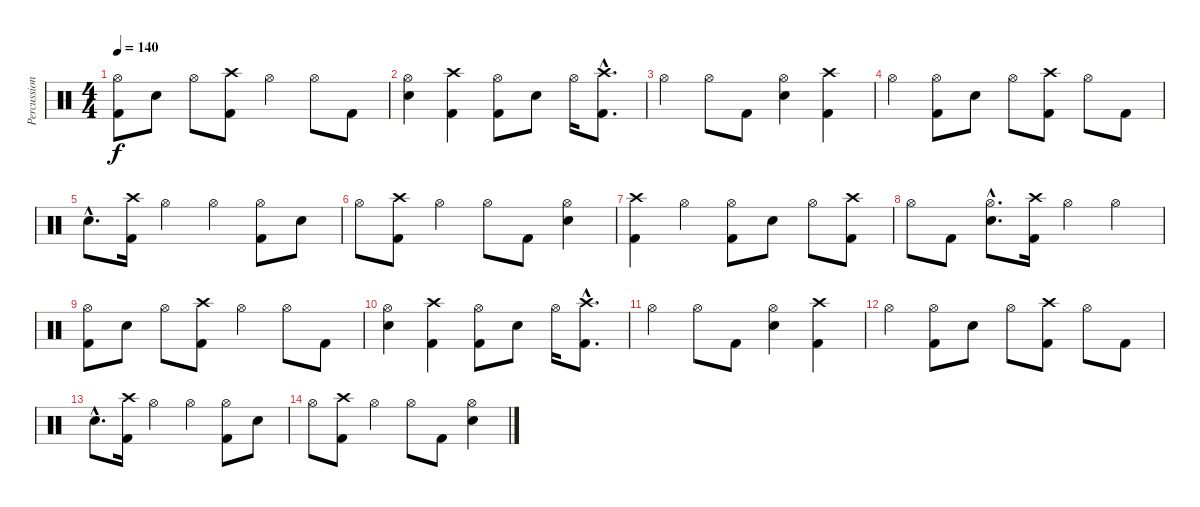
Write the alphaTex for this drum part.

\track ("Percussion" "Percussion") {instrument percussion}
\staff {score}
\articulation defaults
\ts (4 4)
\tempo 140
\clef neutral
\ks c
("Hi-Hat (open)" "Kick (hit) 2").8{dy f} "Electric Snare (hit)".8 "Hi-Hat (open)".8 ("Crash high (hit)" "Kick (hit) 2").8 "Hi-Hat (open)".4 "Hi-Hat (open)".8 "Kick (hit) 2".8 |
("Hi-Hat (open)" "Electric Snare (hit)").4 ("Crash high (hit)" "Kick (hit) 2").4 ("Hi-Hat (open)" "Kick (hit) 2").8 "Electric Snare (hit)".8 "Hi-Hat (open)".16 ("Crash high (hit)"{hac} "Kick (hit) 2"{hac}).8{d} |
"Hi-Hat (open)".4 "Hi-Hat (open)".8 "Kick (hit) 2".8 ("Hi-Hat (open)" "Electric Snare (hit)").4 ("Crash high (hit)" "Kick (hit) 2").4 |
"Hi-Hat (open)".4 ("Hi-Hat (open)" "Kick (hit) 2").8 "Electric Snare (hit)".8 "Hi-Hat (open)".8 ("Crash high (hit)" "Kick (hit) 2").8 "Hi-Hat (open)".8 "Kick (hit) 2".8 |
"Electric Snare (hit)"{hac}.8{d} ("Crash high (hit)" "Kick (hit) 2").16 "Hi-Hat (open)".4 "Hi-Hat (open)".4 ("Hi-Hat (open)" "Kick (hit) 2").8 "Electric Snare (hit)".8 |
"Hi-Hat (open)".8 ("Crash high (hit)" "Kick (hit) 2").8 "Hi-Hat (open)".4 "Hi-Hat (open)".8 "Kick (hit) 2".8 ("Hi-Hat (open)" "Electric Snare (hit)").4 |
("Crash high (hit)" "Kick (hit) 2").4 "Hi-Hat (open)".4 ("Hi-Hat (open)" "Kick (hit) 2").8 "Electric Snare (hit)".8 "Hi-Hat (open)".8 ("Crash high (hit)" "Kick (hit) 2").8 |
"Hi-Hat (open)".8 "Kick (hit) 2".8 ("Hi-Hat (open)"{hac} "Electric Snare (hit)"{hac}).8{d} ("Crash high (hit)" "Kick (hit) 2").16 "Hi-Hat (open)".4 "Hi-Hat (open)".4 |
("Hi-Hat (open)" "Kick (hit) 2").8 "Electric Snare (hit)".8 "Hi-Hat (open)".8 ("Crash high (hit)" "Kick (hit) 2").8 "Hi-Hat (open)".4 "Hi-Hat (open)".8 "Kick (hit) 2".8 |
("Hi-Hat (open)" "Electric Snare (hit)").4 ("Crash high (hit)" "Kick (hit) 2").4 ("Hi-Hat (open)" "Kick (hit) 2").8 "Electric Snare (hit)".8 "Hi-Hat (open)".16 ("Crash high (hit)"{hac} "Kick (hit) 2"{hac}).8{d} |
"Hi-Hat (open)".4 "Hi-Hat (open)".8 "Kick (hit) 2".8 ("Hi-Hat (open)" "Electric Snare (hit)").4 ("Crash high (hit)" "Kick (hit) 2").4 |
"Hi-Hat (open)".4 ("Hi-Hat (open)" "Kick (hit) 2").8 "Electric Snare (hit)".8 "Hi-Hat (open)".8 ("Crash high (hit)" "Kick (hit) 2").8 "Hi-Hat (open)".8 "Kick (hit) 2".8 |
"Electric Snare (hit)"{hac}.8{d} ("Crash high (hit)" "Kick (hit) 2").16 "Hi-Hat (open)".4 "Hi-Hat (open)".4 ("Hi-Hat (open)" "Kick (hit) 2").8 "Electric Snare (hit)".8 |
"Hi-Hat (open)".8 ("Crash high (hit)" "Kick (hit) 2").8 "Hi-Hat (open)".4 "Hi-Hat (open)".8 "Kick (hit) 2".8 ("Hi-Hat (open)" "Electric Snare (hit)").4
